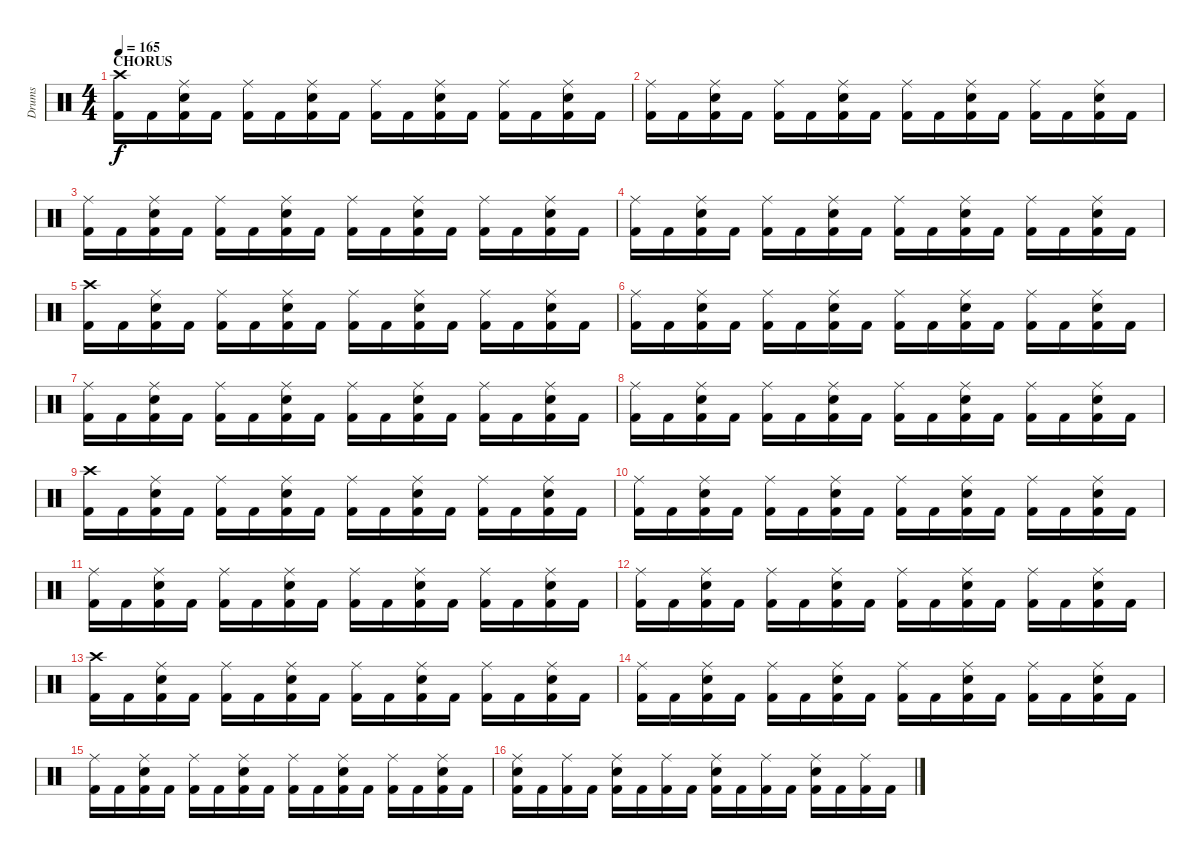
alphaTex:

\track ("Drums" "Drums") {instrument percussion}
\staff {score}
\articulation defaults
\ts (4 4)
\section ("" "CHORUS ")
\tempo 165
\clef neutral
\ks c
("Crash high (hit)" "Kick (hit) 2").16{dy f} "Kick (hit) 2".16 ("Ride (middle)" "Electric Snare (hit)" "Kick (hit) 2").16 "Kick (hit) 2".16 ("Ride (middle)" "Kick (hit) 2").16 "Kick (hit) 2".16 ("Ride (middle)" "Electric Snare (hit)" "Kick (hit) 2").16 "Kick (hit) 2".16 ("Ride (middle)" "Kick (hit) 2").16 "Kick (hit) 2".16 ("Ride (middle)" "Electric Snare (hit)" "Kick (hit) 2").16 "Kick (hit) 2".16 ("Ride (middle)" "Kick (hit) 2").16 "Kick (hit) 2".16 ("Ride (middle)" "Electric Snare (hit)" "Kick (hit) 2").16 "Kick (hit) 2".16 |
("Ride (middle)" "Kick (hit) 2").16 "Kick (hit) 2".16 ("Ride (middle)" "Electric Snare (hit)" "Kick (hit) 2").16 "Kick (hit) 2".16 ("Ride (middle)" "Kick (hit) 2").16 "Kick (hit) 2".16 ("Ride (middle)" "Electric Snare (hit)" "Kick (hit) 2").16 "Kick (hit) 2".16 ("Ride (middle)" "Kick (hit) 2").16 "Kick (hit) 2".16 ("Ride (middle)" "Electric Snare (hit)" "Kick (hit) 2").16 "Kick (hit) 2".16 ("Ride (middle)" "Kick (hit) 2").16 "Kick (hit) 2".16 ("Ride (middle)" "Electric Snare (hit)" "Kick (hit) 2").16 "Kick (hit) 2".16 |
("Ride (middle)" "Kick (hit) 2").16 "Kick (hit) 2".16 ("Ride (middle)" "Electric Snare (hit)" "Kick (hit) 2").16 "Kick (hit) 2".16 ("Ride (middle)" "Kick (hit) 2").16 "Kick (hit) 2".16 ("Ride (middle)" "Electric Snare (hit)" "Kick (hit) 2").16 "Kick (hit) 2".16 ("Ride (middle)" "Kick (hit) 2").16 "Kick (hit) 2".16 ("Ride (middle)" "Electric Snare (hit)" "Kick (hit) 2").16 "Kick (hit) 2".16 ("Ride (middle)" "Kick (hit) 2").16 "Kick (hit) 2".16 ("Ride (middle)" "Electric Snare (hit)" "Kick (hit) 2").16 "Kick (hit) 2".16 |
("Ride (middle)" "Kick (hit) 2").16 "Kick (hit) 2".16 ("Ride (middle)" "Electric Snare (hit)" "Kick (hit) 2").16 "Kick (hit) 2".16 ("Ride (middle)" "Kick (hit) 2").16 "Kick (hit) 2".16 ("Ride (middle)" "Electric Snare (hit)" "Kick (hit) 2").16 "Kick (hit) 2".16 ("Ride (middle)" "Kick (hit) 2").16 "Kick (hit) 2".16 ("Ride (middle)" "Electric Snare (hit)" "Kick (hit) 2").16 "Kick (hit) 2".16 ("Ride (middle)" "Kick (hit) 2").16 "Kick (hit) 2".16 ("Ride (middle)" "Electric Snare (hit)" "Kick (hit) 2").16 "Kick (hit) 2".16 |
("Crash high (hit)" "Kick (hit) 2").16 "Kick (hit) 2".16 ("Ride (middle)" "Electric Snare (hit)" "Kick (hit) 2").16 "Kick (hit) 2".16 ("Ride (middle)" "Kick (hit) 2").16 "Kick (hit) 2".16 ("Ride (middle)" "Electric Snare (hit)" "Kick (hit) 2").16 "Kick (hit) 2".16 ("Ride (middle)" "Kick (hit) 2").16 "Kick (hit) 2".16 ("Ride (middle)" "Electric Snare (hit)" "Kick (hit) 2").16 "Kick (hit) 2".16 ("Ride (middle)" "Kick (hit) 2").16 "Kick (hit) 2".16 ("Ride (middle)" "Electric Snare (hit)" "Kick (hit) 2").16 "Kick (hit) 2".16 |
("Ride (middle)" "Kick (hit) 2").16 "Kick (hit) 2".16 ("Ride (middle)" "Electric Snare (hit)" "Kick (hit) 2").16 "Kick (hit) 2".16 ("Ride (middle)" "Kick (hit) 2").16 "Kick (hit) 2".16 ("Ride (middle)" "Electric Snare (hit)" "Kick (hit) 2").16 "Kick (hit) 2".16 ("Ride (middle)" "Kick (hit) 2").16 "Kick (hit) 2".16 ("Ride (middle)" "Electric Snare (hit)" "Kick (hit) 2").16 "Kick (hit) 2".16 ("Ride (middle)" "Kick (hit) 2").16 "Kick (hit) 2".16 ("Ride (middle)" "Electric Snare (hit)" "Kick (hit) 2").16 "Kick (hit) 2".16 |
("Ride (middle)" "Kick (hit) 2").16 "Kick (hit) 2".16 ("Ride (middle)" "Electric Snare (hit)" "Kick (hit) 2").16 "Kick (hit) 2".16 ("Ride (middle)" "Kick (hit) 2").16 "Kick (hit) 2".16 ("Ride (middle)" "Electric Snare (hit)" "Kick (hit) 2").16 "Kick (hit) 2".16 ("Ride (middle)" "Kick (hit) 2").16 "Kick (hit) 2".16 ("Ride (middle)" "Electric Snare (hit)" "Kick (hit) 2").16 "Kick (hit) 2".16 ("Ride (middle)" "Kick (hit) 2").16 "Kick (hit) 2".16 ("Ride (middle)" "Electric Snare (hit)" "Kick (hit) 2").16 "Kick (hit) 2".16 |
("Ride (middle)" "Kick (hit) 2").16 "Kick (hit) 2".16 ("Ride (middle)" "Electric Snare (hit)" "Kick (hit) 2").16 "Kick (hit) 2".16 ("Ride (middle)" "Kick (hit) 2").16 "Kick (hit) 2".16 ("Ride (middle)" "Electric Snare (hit)" "Kick (hit) 2").16 "Kick (hit) 2".16 ("Ride (middle)" "Kick (hit) 2").16 "Kick (hit) 2".16 ("Ride (middle)" "Electric Snare (hit)" "Kick (hit) 2").16 "Kick (hit) 2".16 ("Ride (middle)" "Kick (hit) 2").16 "Kick (hit) 2".16 ("Ride (middle)" "Electric Snare (hit)" "Kick (hit) 2").16 "Kick (hit) 2".16 |
("Crash high (hit)" "Kick (hit) 2").16 "Kick (hit) 2".16 ("Ride (middle)" "Electric Snare (hit)" "Kick (hit) 2").16 "Kick (hit) 2".16 ("Ride (middle)" "Kick (hit) 2").16 "Kick (hit) 2".16 ("Ride (middle)" "Electric Snare (hit)" "Kick (hit) 2").16 "Kick (hit) 2".16 ("Ride (middle)" "Kick (hit) 2").16 "Kick (hit) 2".16 ("Ride (middle)" "Electric Snare (hit)" "Kick (hit) 2").16 "Kick (hit) 2".16 ("Ride (middle)" "Kick (hit) 2").16 "Kick (hit) 2".16 ("Ride (middle)" "Electric Snare (hit)" "Kick (hit) 2").16 "Kick (hit) 2".16 |
("Ride (middle)" "Kick (hit) 2").16 "Kick (hit) 2".16 ("Ride (middle)" "Electric Snare (hit)" "Kick (hit) 2").16 "Kick (hit) 2".16 ("Ride (middle)" "Kick (hit) 2").16 "Kick (hit) 2".16 ("Ride (middle)" "Electric Snare (hit)" "Kick (hit) 2").16 "Kick (hit) 2".16 ("Ride (middle)" "Kick (hit) 2").16 "Kick (hit) 2".16 ("Ride (middle)" "Electric Snare (hit)" "Kick (hit) 2").16 "Kick (hit) 2".16 ("Ride (middle)" "Kick (hit) 2").16 "Kick (hit) 2".16 ("Ride (middle)" "Electric Snare (hit)" "Kick (hit) 2").16 "Kick (hit) 2".16 |
("Ride (middle)" "Kick (hit) 2").16 "Kick (hit) 2".16 ("Ride (middle)" "Electric Snare (hit)" "Kick (hit) 2").16 "Kick (hit) 2".16 ("Ride (middle)" "Kick (hit) 2").16 "Kick (hit) 2".16 ("Ride (middle)" "Electric Snare (hit)" "Kick (hit) 2").16 "Kick (hit) 2".16 ("Ride (middle)" "Kick (hit) 2").16 "Kick (hit) 2".16 ("Ride (middle)" "Electric Snare (hit)" "Kick (hit) 2").16 "Kick (hit) 2".16 ("Ride (middle)" "Kick (hit) 2").16 "Kick (hit) 2".16 ("Ride (middle)" "Electric Snare (hit)" "Kick (hit) 2").16 "Kick (hit) 2".16 |
("Ride (middle)" "Kick (hit) 2").16 "Kick (hit) 2".16 ("Ride (middle)" "Electric Snare (hit)" "Kick (hit) 2").16 "Kick (hit) 2".16 ("Ride (middle)" "Kick (hit) 2").16 "Kick (hit) 2".16 ("Ride (middle)" "Electric Snare (hit)" "Kick (hit) 2").16 "Kick (hit) 2".16 ("Ride (middle)" "Kick (hit) 2").16 "Kick (hit) 2".16 ("Ride (middle)" "Electric Snare (hit)" "Kick (hit) 2").16 "Kick (hit) 2".16 ("Ride (middle)" "Kick (hit) 2").16 "Kick (hit) 2".16 ("Ride (middle)" "Electric Snare (hit)" "Kick (hit) 2").16 "Kick (hit) 2".16 |
("Crash high (hit)" "Kick (hit) 2").16 "Kick (hit) 2".16 ("Ride (middle)" "Electric Snare (hit)" "Kick (hit) 2").16 "Kick (hit) 2".16 ("Ride (middle)" "Kick (hit) 2").16 "Kick (hit) 2".16 ("Ride (middle)" "Electric Snare (hit)" "Kick (hit) 2").16 "Kick (hit) 2".16 ("Ride (middle)" "Kick (hit) 2").16 "Kick (hit) 2".16 ("Ride (middle)" "Electric Snare (hit)" "Kick (hit) 2").16 "Kick (hit) 2".16 ("Ride (middle)" "Kick (hit) 2").16 "Kick (hit) 2".16 ("Ride (middle)" "Electric Snare (hit)" "Kick (hit) 2").16 "Kick (hit) 2".16 |
("Ride (middle)" "Kick (hit) 2").16 "Kick (hit) 2".16 ("Ride (middle)" "Electric Snare (hit)" "Kick (hit) 2").16 "Kick (hit) 2".16 ("Ride (middle)" "Kick (hit) 2").16 "Kick (hit) 2".16 ("Ride (middle)" "Electric Snare (hit)" "Kick (hit) 2").16 "Kick (hit) 2".16 ("Ride (middle)" "Kick (hit) 2").16 "Kick (hit) 2".16 ("Ride (middle)" "Electric Snare (hit)" "Kick (hit) 2").16 "Kick (hit) 2".16 ("Ride (middle)" "Kick (hit) 2").16 "Kick (hit) 2".16 ("Ride (middle)" "Electric Snare (hit)" "Kick (hit) 2").16 "Kick (hit) 2".16 |
("Ride (middle)" "Kick (hit) 2").16 "Kick (hit) 2".16 ("Ride (middle)" "Electric Snare (hit)" "Kick (hit) 2").16 "Kick (hit) 2".16 ("Ride (middle)" "Kick (hit) 2").16 "Kick (hit) 2".16 ("Ride (middle)" "Electric Snare (hit)" "Kick (hit) 2").16 "Kick (hit) 2".16 ("Ride (middle)" "Kick (hit) 2").16 "Kick (hit) 2".16 ("Ride (middle)" "Electric Snare (hit)" "Kick (hit) 2").16 "Kick (hit) 2".16 ("Ride (middle)" "Kick (hit) 2").16 "Kick (hit) 2".16 ("Ride (middle)" "Electric Snare (hit)" "Kick (hit) 2").16 "Kick (hit) 2".16 |
("Ride (middle)" "Electric Snare (hit)" "Kick (hit) 2").16 "Kick (hit) 2".16 ("Ride (middle)" "Kick (hit) 2").16 "Kick (hit) 2".16 ("Ride (middle)" "Electric Snare (hit)" "Kick (hit) 2").16 "Kick (hit) 2".16 ("Ride (middle)" "Kick (hit) 2").16 "Kick (hit) 2".16 ("Ride (middle)" "Electric Snare (hit)" "Kick (hit) 2").16 "Kick (hit) 2".16 ("Ride (middle)" "Kick (hit) 2").16 "Kick (hit) 2".16 ("Ride (middle)" "Electric Snare (hit)" "Kick (hit) 2").16 "Kick (hit) 2".16 ("Ride (middle)" "Kick (hit) 2").16 "Kick (hit) 2".16
